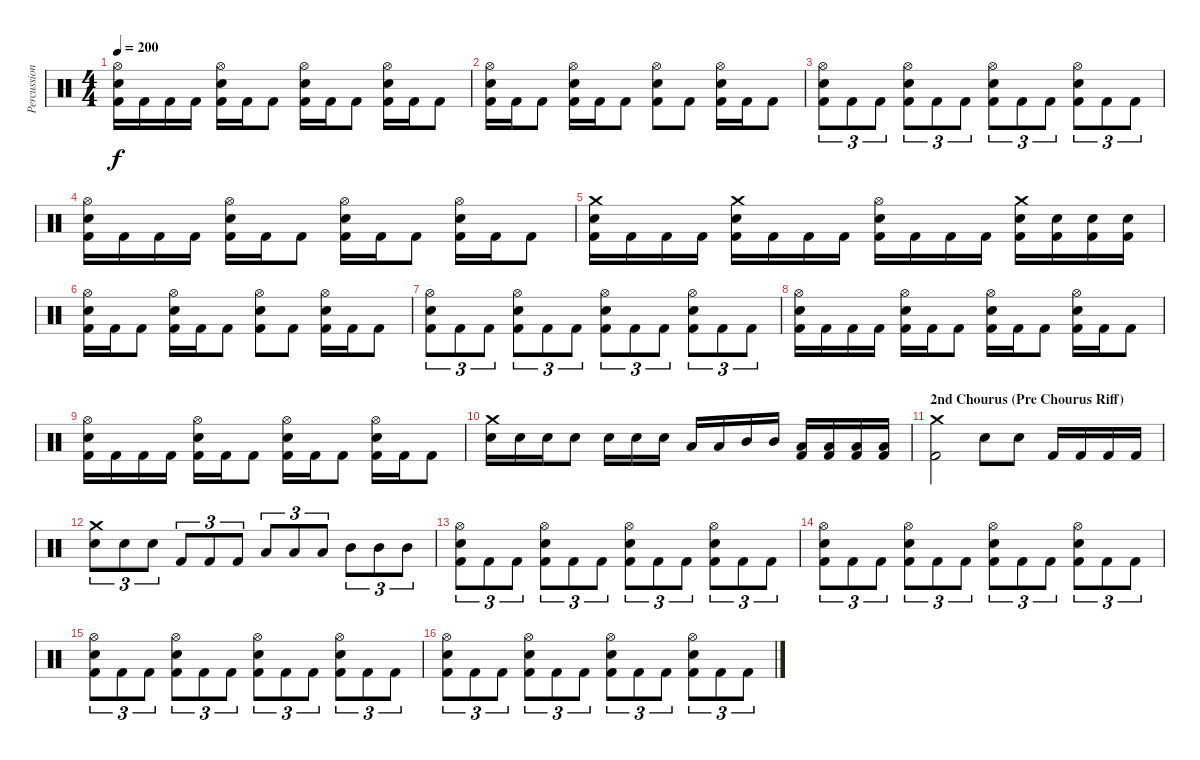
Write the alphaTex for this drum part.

\track ("Percussion" "Percussion") {instrument percussion}
\staff {score}
\articulation defaults
\ts (4 4)
\tempo 200
\clef neutral
\ks c
("Hi-Hat (open)" "Electric Snare (hit)" "Kick (hit) 2").16{dy f} "Kick (hit) 2".16 "Kick (hit) 2".16 "Kick (hit) 2".16 ("Hi-Hat (open)" "Electric Snare (hit)" "Kick (hit) 2").16 "Kick (hit) 2".16 "Kick (hit) 2".8 ("Hi-Hat (open)" "Electric Snare (hit)" "Kick (hit) 2").16 "Kick (hit) 2".16 "Kick (hit) 2".8 ("Hi-Hat (open)" "Electric Snare (hit)" "Kick (hit) 2").16 "Kick (hit) 2".16 "Kick (hit) 2".8 |
("Hi-Hat (open)" "Electric Snare (hit)" "Kick (hit) 2").16 "Kick (hit) 2".16 "Kick (hit) 2".8 ("Hi-Hat (open)" "Electric Snare (hit)" "Kick (hit) 2").16 "Kick (hit) 2".16 "Kick (hit) 2".8 ("Hi-Hat (open)" "Electric Snare (hit)" "Kick (hit) 2").8 "Kick (hit) 2".8 ("Hi-Hat (open)" "Electric Snare (hit)" "Kick (hit) 2").16 "Kick (hit) 2".16 "Kick (hit) 2".8 |
("Hi-Hat (open)" "Electric Snare (hit)" "Kick (hit) 2").8{tu (3 2)} "Kick (hit) 2".8{tu (3 2)} "Kick (hit) 2".8{tu (3 2)} ("Hi-Hat (open)" "Electric Snare (hit)" "Kick (hit) 2").8{tu (3 2)} "Kick (hit) 2".8{tu (3 2)} "Kick (hit) 2".8{tu (3 2)} ("Hi-Hat (open)" "Electric Snare (hit)" "Kick (hit) 2").8{tu (3 2)} "Kick (hit) 2".8{tu (3 2)} "Kick (hit) 2".8{tu (3 2)} ("Hi-Hat (open)" "Electric Snare (hit)" "Kick (hit) 2").8{tu (3 2)} "Kick (hit) 2".8{tu (3 2)} "Kick (hit) 2".8{tu (3 2)} |
("Hi-Hat (open)" "Electric Snare (hit)" "Kick (hit) 2").16 "Kick (hit) 2".16 "Kick (hit) 2".16 "Kick (hit) 2".16 ("Hi-Hat (open)" "Electric Snare (hit)" "Kick (hit) 2").16 "Kick (hit) 2".16 "Kick (hit) 2".8 ("Hi-Hat (open)" "Electric Snare (hit)" "Kick (hit) 2").16 "Kick (hit) 2".16 "Kick (hit) 2".8 ("Hi-Hat (open)" "Electric Snare (hit)" "Kick (hit) 2").16 "Kick (hit) 2".16 "Kick (hit) 2".8 |
("Crash medium (hit)" "Electric Snare (hit)" "Kick (hit) 2").16 "Kick (hit) 2".16 "Kick (hit) 2".16 "Kick (hit) 2".16 ("Crash medium (hit)" "Electric Snare (hit)" "Kick (hit) 2").16 "Kick (hit) 2".16 "Kick (hit) 2".16 "Kick (hit) 2".16 ("Hi-Hat (open)" "Electric Snare (hit)" "Kick (hit) 2").16 "Kick (hit) 2".16 "Kick (hit) 2".16 "Kick (hit) 2".16 ("Crash medium (hit)" "Electric Snare (hit)" "Kick (hit) 2").16 ("Electric Snare (hit)" "Kick (hit) 2").16 ("Electric Snare (hit)" "Kick (hit) 2").16 ("Electric Snare (hit)" "Kick (hit) 2").16 |
("Hi-Hat (open)" "Electric Snare (hit)" "Kick (hit) 2").16 "Kick (hit) 2".16 "Kick (hit) 2".8 ("Hi-Hat (open)" "Electric Snare (hit)" "Kick (hit) 2").16 "Kick (hit) 2".16 "Kick (hit) 2".8 ("Hi-Hat (open)" "Electric Snare (hit)" "Kick (hit) 2").8 "Kick (hit) 2".8 ("Hi-Hat (open)" "Electric Snare (hit)" "Kick (hit) 2").16 "Kick (hit) 2".16 "Kick (hit) 2".8 |
("Hi-Hat (open)" "Electric Snare (hit)" "Kick (hit) 2").8{tu (3 2)} "Kick (hit) 2".8{tu (3 2)} "Kick (hit) 2".8{tu (3 2)} ("Hi-Hat (open)" "Electric Snare (hit)" "Kick (hit) 2").8{tu (3 2)} "Kick (hit) 2".8{tu (3 2)} "Kick (hit) 2".8{tu (3 2)} ("Hi-Hat (open)" "Electric Snare (hit)" "Kick (hit) 2").8{tu (3 2)} "Kick (hit) 2".8{tu (3 2)} "Kick (hit) 2".8{tu (3 2)} ("Hi-Hat (open)" "Electric Snare (hit)" "Kick (hit) 2").8{tu (3 2)} "Kick (hit) 2".8{tu (3 2)} "Kick (hit) 2".8{tu (3 2)} |
("Hi-Hat (open)" "Electric Snare (hit)" "Kick (hit) 2").16 "Kick (hit) 2".16 "Kick (hit) 2".16 "Kick (hit) 2".16 ("Hi-Hat (open)" "Electric Snare (hit)" "Kick (hit) 2").16 "Kick (hit) 2".16 "Kick (hit) 2".8 ("Hi-Hat (open)" "Electric Snare (hit)" "Kick (hit) 2").16 "Kick (hit) 2".16 "Kick (hit) 2".8 ("Hi-Hat (open)" "Electric Snare (hit)" "Kick (hit) 2").16 "Kick (hit) 2".16 "Kick (hit) 2".8 |
("Hi-Hat (open)" "Electric Snare (hit)" "Kick (hit) 2").16 "Kick (hit) 2".16 "Kick (hit) 2".16 "Kick (hit) 2".16 ("Hi-Hat (open)" "Electric Snare (hit)" "Kick (hit) 2").16 "Kick (hit) 2".16 "Kick (hit) 2".8 ("Hi-Hat (open)" "Electric Snare (hit)" "Kick (hit) 2").16 "Kick (hit) 2".16 "Kick (hit) 2".8 ("Hi-Hat (open)" "Electric Snare (hit)" "Kick (hit) 2").16 "Kick (hit) 2".16 "Kick (hit) 2".8 |
("Crash medium (hit)" "Electric Snare (hit)").16 "Electric Snare (hit)".16 "Electric Snare (hit)".16 "Electric Snare (hit)".8 "Electric Snare (hit)".16 "Electric Snare (hit)".16 "Electric Snare (hit)".16 "Low Tom (hit)".16 "Low Tom (hit)".16 "Mid Tom (hit)".16 "Mid Tom (hit)".16 ("Low Floor Tom (hit)" "Kick (hit) 2").16 ("Low Floor Tom (hit)" "Kick (hit) 2").16 ("Low Floor Tom (hit)" "Kick (hit) 2").16 ("Low Floor Tom (hit)" "Kick (hit) 2").16 |
\section ("" "2nd Chourus (Pre Chourus Riff)")
("Crash medium (hit)" "Kick (hit) 2").2 "Electric Snare (hit)".8 "Electric Snare (hit)".8 "Kick (hit) 2".16 "Kick (hit) 2".16 "Kick (hit) 2".16 "Kick (hit) 2".16 |
("Crash medium (hit)" "Electric Snare (hit)").8{tu (3 2)} "Electric Snare (hit)".8{tu (3 2)} "Electric Snare (hit)".8{tu (3 2)} "Kick (hit) 2".8{tu (3 2)} "Kick (hit) 2".8{tu (3 2)} "Kick (hit) 2".8{tu (3 2)} "Low Tom (hit)".8{tu (3 2)} "Low Tom (hit)".8{tu (3 2)} "Low Tom (hit)".8{tu (3 2)} "Mid Tom (hit)".8{tu (3 2)} "Mid Tom (hit)".8{tu (3 2)} "Mid Tom (hit)".8{tu (3 2)} |
("Hi-Hat (open)" "Electric Snare (hit)" "Kick (hit) 2").8{tu (3 2)} "Kick (hit) 2".8{tu (3 2)} "Kick (hit) 2".8{tu (3 2)} ("Hi-Hat (open)" "Electric Snare (hit)" "Kick (hit) 2").8{tu (3 2)} "Kick (hit) 2".8{tu (3 2)} "Kick (hit) 2".8{tu (3 2)} ("Hi-Hat (open)" "Electric Snare (hit)" "Kick (hit) 2").8{tu (3 2)} "Kick (hit) 2".8{tu (3 2)} "Kick (hit) 2".8{tu (3 2)} ("Hi-Hat (open)" "Electric Snare (hit)" "Kick (hit) 2").8{tu (3 2)} "Kick (hit) 2".8{tu (3 2)} "Kick (hit) 2".8{tu (3 2)} |
("Hi-Hat (open)" "Electric Snare (hit)" "Kick (hit) 2").8{tu (3 2)} "Kick (hit) 2".8{tu (3 2)} "Kick (hit) 2".8{tu (3 2)} ("Hi-Hat (open)" "Electric Snare (hit)" "Kick (hit) 2").8{tu (3 2)} "Kick (hit) 2".8{tu (3 2)} "Kick (hit) 2".8{tu (3 2)} ("Hi-Hat (open)" "Electric Snare (hit)" "Kick (hit) 2").8{tu (3 2)} "Kick (hit) 2".8{tu (3 2)} "Kick (hit) 2".8{tu (3 2)} ("Hi-Hat (open)" "Electric Snare (hit)" "Kick (hit) 2").8{tu (3 2)} "Kick (hit) 2".8{tu (3 2)} "Kick (hit) 2".8{tu (3 2)} |
("Hi-Hat (open)" "Electric Snare (hit)" "Kick (hit) 2").8{tu (3 2)} "Kick (hit) 2".8{tu (3 2)} "Kick (hit) 2".8{tu (3 2)} ("Hi-Hat (open)" "Electric Snare (hit)" "Kick (hit) 2").8{tu (3 2)} "Kick (hit) 2".8{tu (3 2)} "Kick (hit) 2".8{tu (3 2)} ("Hi-Hat (open)" "Electric Snare (hit)" "Kick (hit) 2").8{tu (3 2)} "Kick (hit) 2".8{tu (3 2)} "Kick (hit) 2".8{tu (3 2)} ("Hi-Hat (open)" "Electric Snare (hit)" "Kick (hit) 2").8{tu (3 2)} "Kick (hit) 2".8{tu (3 2)} "Kick (hit) 2".8{tu (3 2)} |
("Hi-Hat (open)" "Electric Snare (hit)" "Kick (hit) 2").8{tu (3 2)} "Kick (hit) 2".8{tu (3 2)} "Kick (hit) 2".8{tu (3 2)} ("Hi-Hat (open)" "Electric Snare (hit)" "Kick (hit) 2").8{tu (3 2)} "Kick (hit) 2".8{tu (3 2)} "Kick (hit) 2".8{tu (3 2)} ("Hi-Hat (open)" "Electric Snare (hit)" "Kick (hit) 2").8{tu (3 2)} "Kick (hit) 2".8{tu (3 2)} "Kick (hit) 2".8{tu (3 2)} ("Hi-Hat (open)" "Electric Snare (hit)" "Kick (hit) 2").8{tu (3 2)} "Kick (hit) 2".8{tu (3 2)} "Kick (hit) 2".8{tu (3 2)}
